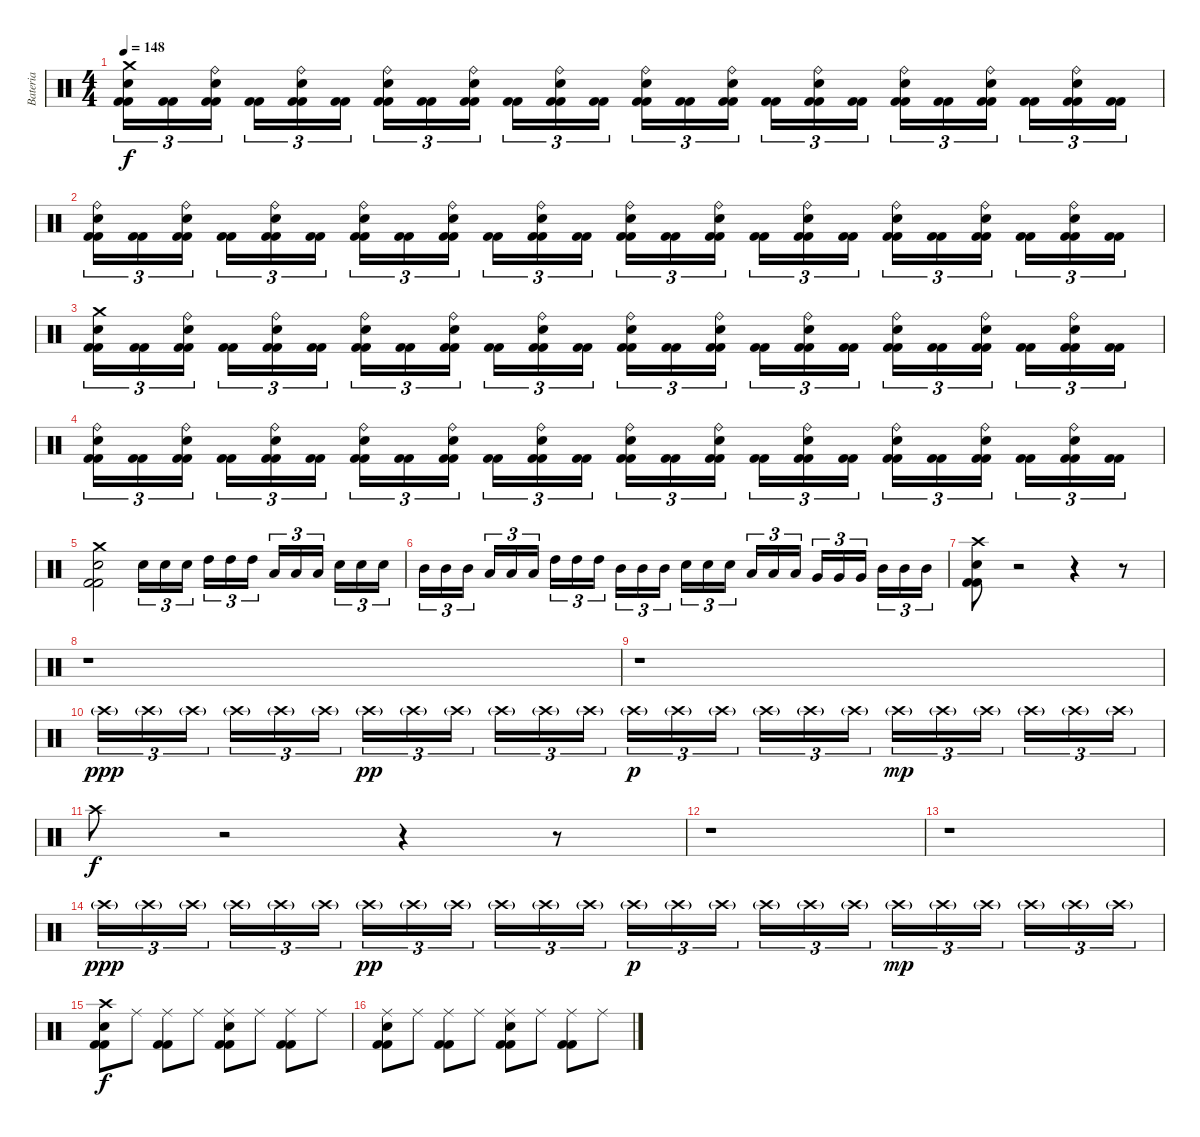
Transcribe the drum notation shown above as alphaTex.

\track ("Bateria" "Bateria") {instrument percussion}
\staff {score}
\articulation defaults
\ts (4 4)
\tempo 148
\clef neutral
\ks c
("Kick (hit) 2" "Kick (hit) 2" "Snare (hit) 2" "Crash medium (hit)").16{tu (3 2) dy f} ("Kick (hit) 2" "Kick (hit) 2").16{tu (3 2)} ("Kick (hit) 2" "Kick (hit) 2" "Snare (hit) 2" "Ride (bell)").16{tu (3 2)} ("Kick (hit) 2" "Kick (hit) 2").16{tu (3 2)} ("Kick (hit) 2" "Kick (hit) 2" "Snare (hit) 2" "Ride (bell)").16{tu (3 2)} ("Kick (hit) 2" "Kick (hit) 2").16{tu (3 2)} ("Kick (hit) 2" "Kick (hit) 2" "Snare (hit) 2" "Ride (bell)").16{tu (3 2)} ("Kick (hit) 2" "Kick (hit) 2").16{tu (3 2)} ("Kick (hit) 2" "Kick (hit) 2" "Snare (hit) 2" "Ride (bell)").16{tu (3 2)} ("Kick (hit) 2" "Kick (hit) 2").16{tu (3 2)} ("Kick (hit) 2" "Kick (hit) 2" "Snare (hit) 2" "Ride (bell)").16{tu (3 2)} ("Kick (hit) 2" "Kick (hit) 2").16{tu (3 2)} ("Kick (hit) 2" "Kick (hit) 2" "Snare (hit) 2" "Ride (bell)").16{tu (3 2)} ("Kick (hit) 2" "Kick (hit) 2").16{tu (3 2)} ("Kick (hit) 2" "Kick (hit) 2" "Snare (hit) 2" "Ride (bell)").16{tu (3 2)} ("Kick (hit) 2" "Kick (hit) 2").16{tu (3 2)} ("Kick (hit) 2" "Kick (hit) 2" "Snare (hit) 2" "Ride (bell)").16{tu (3 2)} ("Kick (hit) 2" "Kick (hit) 2").16{tu (3 2)} ("Kick (hit) 2" "Kick (hit) 2" "Snare (hit) 2" "Ride (bell)").16{tu (3 2)} ("Kick (hit) 2" "Kick (hit) 2").16{tu (3 2)} ("Kick (hit) 2" "Kick (hit) 2" "Snare (hit) 2" "Ride (bell)").16{tu (3 2)} ("Kick (hit) 2" "Kick (hit) 2").16{tu (3 2)} ("Kick (hit) 2" "Kick (hit) 2" "Snare (hit) 2" "Ride (bell)").16{tu (3 2)} ("Kick (hit) 2" "Kick (hit) 2").16{tu (3 2)} |
("Kick (hit) 2" "Kick (hit) 2" "Snare (hit) 2" "Ride (bell)").16{tu (3 2)} ("Kick (hit) 2" "Kick (hit) 2").16{tu (3 2)} ("Kick (hit) 2" "Kick (hit) 2" "Snare (hit) 2" "Ride (bell)").16{tu (3 2)} ("Kick (hit) 2" "Kick (hit) 2").16{tu (3 2)} ("Kick (hit) 2" "Kick (hit) 2" "Snare (hit) 2" "Ride (bell)").16{tu (3 2)} ("Kick (hit) 2" "Kick (hit) 2").16{tu (3 2)} ("Kick (hit) 2" "Kick (hit) 2" "Snare (hit) 2" "Ride (bell)").16{tu (3 2)} ("Kick (hit) 2" "Kick (hit) 2").16{tu (3 2)} ("Kick (hit) 2" "Kick (hit) 2" "Snare (hit) 2" "Ride (bell)").16{tu (3 2)} ("Kick (hit) 2" "Kick (hit) 2").16{tu (3 2)} ("Kick (hit) 2" "Kick (hit) 2" "Snare (hit) 2" "Ride (bell)").16{tu (3 2)} ("Kick (hit) 2" "Kick (hit) 2").16{tu (3 2)} ("Kick (hit) 2" "Kick (hit) 2" "Snare (hit) 2" "Ride (bell)").16{tu (3 2)} ("Kick (hit) 2" "Kick (hit) 2").16{tu (3 2)} ("Kick (hit) 2" "Kick (hit) 2" "Snare (hit) 2" "Ride (bell)").16{tu (3 2)} ("Kick (hit) 2" "Kick (hit) 2").16{tu (3 2)} ("Kick (hit) 2" "Kick (hit) 2" "Snare (hit) 2" "Ride (bell)").16{tu (3 2)} ("Kick (hit) 2" "Kick (hit) 2").16{tu (3 2)} ("Kick (hit) 2" "Kick (hit) 2" "Snare (hit) 2" "Ride (bell)").16{tu (3 2)} ("Kick (hit) 2" "Kick (hit) 2").16{tu (3 2)} ("Kick (hit) 2" "Kick (hit) 2" "Snare (hit) 2" "Ride (bell)").16{tu (3 2)} ("Kick (hit) 2" "Kick (hit) 2").16{tu (3 2)} ("Kick (hit) 2" "Kick (hit) 2" "Snare (hit) 2" "Ride (bell)").16{tu (3 2)} ("Kick (hit) 2" "Kick (hit) 2").16{tu (3 2)} |
("Kick (hit) 2" "Kick (hit) 2" "Snare (hit) 2" "Crash medium (hit)").16{tu (3 2)} ("Kick (hit) 2" "Kick (hit) 2").16{tu (3 2)} ("Kick (hit) 2" "Kick (hit) 2" "Snare (hit) 2" "Ride (bell)").16{tu (3 2)} ("Kick (hit) 2" "Kick (hit) 2").16{tu (3 2)} ("Kick (hit) 2" "Kick (hit) 2" "Snare (hit) 2" "Ride (bell)").16{tu (3 2)} ("Kick (hit) 2" "Kick (hit) 2").16{tu (3 2)} ("Kick (hit) 2" "Kick (hit) 2" "Snare (hit) 2" "Ride (bell)").16{tu (3 2)} ("Kick (hit) 2" "Kick (hit) 2").16{tu (3 2)} ("Kick (hit) 2" "Kick (hit) 2" "Snare (hit) 2" "Ride (bell)").16{tu (3 2)} ("Kick (hit) 2" "Kick (hit) 2").16{tu (3 2)} ("Kick (hit) 2" "Kick (hit) 2" "Snare (hit) 2" "Ride (bell)").16{tu (3 2)} ("Kick (hit) 2" "Kick (hit) 2").16{tu (3 2)} ("Kick (hit) 2" "Kick (hit) 2" "Snare (hit) 2" "Ride (bell)").16{tu (3 2)} ("Kick (hit) 2" "Kick (hit) 2").16{tu (3 2)} ("Kick (hit) 2" "Kick (hit) 2" "Snare (hit) 2" "Ride (bell)").16{tu (3 2)} ("Kick (hit) 2" "Kick (hit) 2").16{tu (3 2)} ("Kick (hit) 2" "Kick (hit) 2" "Snare (hit) 2" "Ride (bell)").16{tu (3 2)} ("Kick (hit) 2" "Kick (hit) 2").16{tu (3 2)} ("Kick (hit) 2" "Kick (hit) 2" "Snare (hit) 2" "Ride (bell)").16{tu (3 2)} ("Kick (hit) 2" "Kick (hit) 2").16{tu (3 2)} ("Kick (hit) 2" "Kick (hit) 2" "Snare (hit) 2" "Ride (bell)").16{tu (3 2)} ("Kick (hit) 2" "Kick (hit) 2").16{tu (3 2)} ("Kick (hit) 2" "Kick (hit) 2" "Snare (hit) 2" "Ride (bell)").16{tu (3 2)} ("Kick (hit) 2" "Kick (hit) 2").16{tu (3 2)} |
("Kick (hit) 2" "Kick (hit) 2" "Snare (hit) 2" "Ride (bell)").16{tu (3 2)} ("Kick (hit) 2" "Kick (hit) 2").16{tu (3 2)} ("Kick (hit) 2" "Kick (hit) 2" "Snare (hit) 2" "Ride (bell)").16{tu (3 2)} ("Kick (hit) 2" "Kick (hit) 2").16{tu (3 2)} ("Kick (hit) 2" "Kick (hit) 2" "Snare (hit) 2" "Ride (bell)").16{tu (3 2)} ("Kick (hit) 2" "Kick (hit) 2").16{tu (3 2)} ("Kick (hit) 2" "Kick (hit) 2" "Snare (hit) 2" "Ride (bell)").16{tu (3 2)} ("Kick (hit) 2" "Kick (hit) 2").16{tu (3 2)} ("Kick (hit) 2" "Kick (hit) 2" "Snare (hit) 2" "Ride (bell)").16{tu (3 2)} ("Kick (hit) 2" "Kick (hit) 2").16{tu (3 2)} ("Kick (hit) 2" "Kick (hit) 2" "Snare (hit) 2" "Ride (bell)").16{tu (3 2)} ("Kick (hit) 2" "Kick (hit) 2").16{tu (3 2)} ("Kick (hit) 2" "Kick (hit) 2" "Snare (hit) 2" "Ride (bell)").16{tu (3 2)} ("Kick (hit) 2" "Kick (hit) 2").16{tu (3 2)} ("Kick (hit) 2" "Kick (hit) 2" "Snare (hit) 2" "Ride (bell)").16{tu (3 2)} ("Kick (hit) 2" "Kick (hit) 2").16{tu (3 2)} ("Kick (hit) 2" "Kick (hit) 2" "Snare (hit) 2" "Ride (bell)").16{tu (3 2)} ("Kick (hit) 2" "Kick (hit) 2").16{tu (3 2)} ("Kick (hit) 2" "Kick (hit) 2" "Snare (hit) 2" "Ride (bell)").16{tu (3 2)} ("Kick (hit) 2" "Kick (hit) 2").16{tu (3 2)} ("Kick (hit) 2" "Kick (hit) 2" "Snare (hit) 2" "Ride (bell)").16{tu (3 2)} ("Kick (hit) 2" "Kick (hit) 2").16{tu (3 2)} ("Kick (hit) 2" "Kick (hit) 2" "Snare (hit) 2" "Ride (bell)").16{tu (3 2)} ("Kick (hit) 2" "Kick (hit) 2").16{tu (3 2)} |
("Kick (hit) 2" "Kick (hit) 2" "Snare (hit) 2" "Crash medium (hit)").2 "Snare (hit) 2".16{tu (3 2)} "Snare (hit) 2".16{tu (3 2)} "Snare (hit) 2".16{tu (3 2)} "High Tom (hit)".16{tu (3 2)} "High Tom (hit)".16{tu (3 2)} "High Tom (hit)".16{tu (3 2)} "Low Tom (hit)".16{tu (3 2)} "Low Tom (hit)".16{tu (3 2)} "Low Tom (hit)".16{tu (3 2)} "Snare (hit) 2".16{tu (3 2)} "Snare (hit) 2".16{tu (3 2)} "Snare (hit) 2".16{tu (3 2)} |
"Mid Tom (hit)".16{tu (3 2)} "Mid Tom (hit)".16{tu (3 2)} "Mid Tom (hit)".16{tu (3 2)} "Low Tom (hit)".16{tu (3 2)} "Low Tom (hit)".16{tu (3 2)} "Low Tom (hit)".16{tu (3 2)} "High Tom (hit)".16{tu (3 2)} "High Tom (hit)".16{tu (3 2)} "High Tom (hit)".16{tu (3 2)} "Mid Tom (hit)".16{tu (3 2)} "Mid Tom (hit)".16{tu (3 2)} "Mid Tom (hit)".16{tu (3 2)} "Snare (hit) 2".16{tu (3 2)} "Snare (hit) 2".16{tu (3 2)} "Snare (hit) 2".16{tu (3 2)} "Low Tom (hit)".16{tu (3 2)} "Low Tom (hit)".16{tu (3 2)} "Low Tom (hit)".16{tu (3 2)} "Very Low Tom (hit)".16{tu (3 2)} "Very Low Tom (hit)".16{tu (3 2)} "Very Low Tom (hit)".16{tu (3 2)} "Mid Tom (hit)".16{tu (3 2)} "Mid Tom (hit)".16{tu (3 2)} "Mid Tom (hit)".16{tu (3 2)} |
("Kick (hit) 2" "Kick (hit) 2" "Snare (hit) 2" "Crash high (hit)").8 r.2 r.4 r.8 |
r.1 |
r.1 |
"Crash high (hit)"{g}.16{tu (3 2) dy ppp} "Crash high (hit)"{g}.16{tu (3 2)} "Crash high (hit)"{g}.16{tu (3 2)} "Crash high (hit)"{g}.16{tu (3 2)} "Crash high (hit)"{g}.16{tu (3 2)} "Crash high (hit)"{g}.16{tu (3 2)} "Crash high (hit)"{g}.16{tu (3 2) dy pp} "Crash high (hit)"{g}.16{tu (3 2)} "Crash high (hit)"{g}.16{tu (3 2)} "Crash high (hit)"{g}.16{tu (3 2)} "Crash high (hit)"{g}.16{tu (3 2)} "Crash high (hit)"{g}.16{tu (3 2)} "Crash high (hit)"{g}.16{tu (3 2) dy p} "Crash high (hit)"{g}.16{tu (3 2)} "Crash high (hit)"{g}.16{tu (3 2)} "Crash high (hit)"{g}.16{tu (3 2)} "Crash high (hit)"{g}.16{tu (3 2)} "Crash high (hit)"{g}.16{tu (3 2)} "Crash high (hit)"{g}.16{tu (3 2) dy mp} "Crash high (hit)"{g}.16{tu (3 2)} "Crash high (hit)"{g}.16{tu (3 2)} "Crash high (hit)"{g}.16{tu (3 2)} "Crash high (hit)"{g}.16{tu (3 2)} "Crash high (hit)"{g}.16{tu (3 2)} |
"Crash high (hit)".8{dy f} r.2 r.4 r.8 |
r.1 |
r.1 |
"Crash high (hit)"{g}.16{tu (3 2) dy ppp} "Crash high (hit)"{g}.16{tu (3 2)} "Crash high (hit)"{g}.16{tu (3 2)} "Crash high (hit)"{g}.16{tu (3 2)} "Crash high (hit)"{g}.16{tu (3 2)} "Crash high (hit)"{g}.16{tu (3 2)} "Crash high (hit)"{g}.16{tu (3 2) dy pp} "Crash high (hit)"{g}.16{tu (3 2)} "Crash high (hit)"{g}.16{tu (3 2)} "Crash high (hit)"{g}.16{tu (3 2)} "Crash high (hit)"{g}.16{tu (3 2)} "Crash high (hit)"{g}.16{tu (3 2)} "Crash high (hit)"{g}.16{tu (3 2) dy p} "Crash high (hit)"{g}.16{tu (3 2)} "Crash high (hit)"{g}.16{tu (3 2)} "Crash high (hit)"{g}.16{tu (3 2)} "Crash high (hit)"{g}.16{tu (3 2)} "Crash high (hit)"{g}.16{tu (3 2)} "Crash high (hit)"{g}.16{tu (3 2) dy mp} "Crash high (hit)"{g}.16{tu (3 2)} "Crash high (hit)"{g}.16{tu (3 2)} "Crash high (hit)"{g}.16{tu (3 2)} "Crash high (hit)"{g}.16{tu (3 2)} "Crash high (hit)"{g}.16{tu (3 2)} |
("Kick (hit) 2" "Kick (hit) 2" "Snare (hit) 2" "Crash high (hit)").8{dy f} "Ride (middle)".8 ("Kick (hit) 2" "Kick (hit) 2" "Ride (middle)").8 "Ride (middle)".8 ("Kick (hit) 2" "Kick (hit) 2" "Snare (hit) 2" "Ride (middle)").8 "Ride (middle)".8 ("Kick (hit) 2" "Kick (hit) 2" "Ride (middle)").8 "Ride (middle)".8 |
("Kick (hit) 2" "Kick (hit) 2" "Snare (hit) 2" "Ride (middle)").8 "Ride (middle)".8 ("Kick (hit) 2" "Kick (hit) 2" "Ride (middle)").8 "Ride (middle)".8 ("Kick (hit) 2" "Kick (hit) 2" "Snare (hit) 2" "Ride (middle)").8 "Ride (middle)".8 ("Kick (hit) 2" "Kick (hit) 2" "Ride (middle)").8 "Ride (middle)".8
